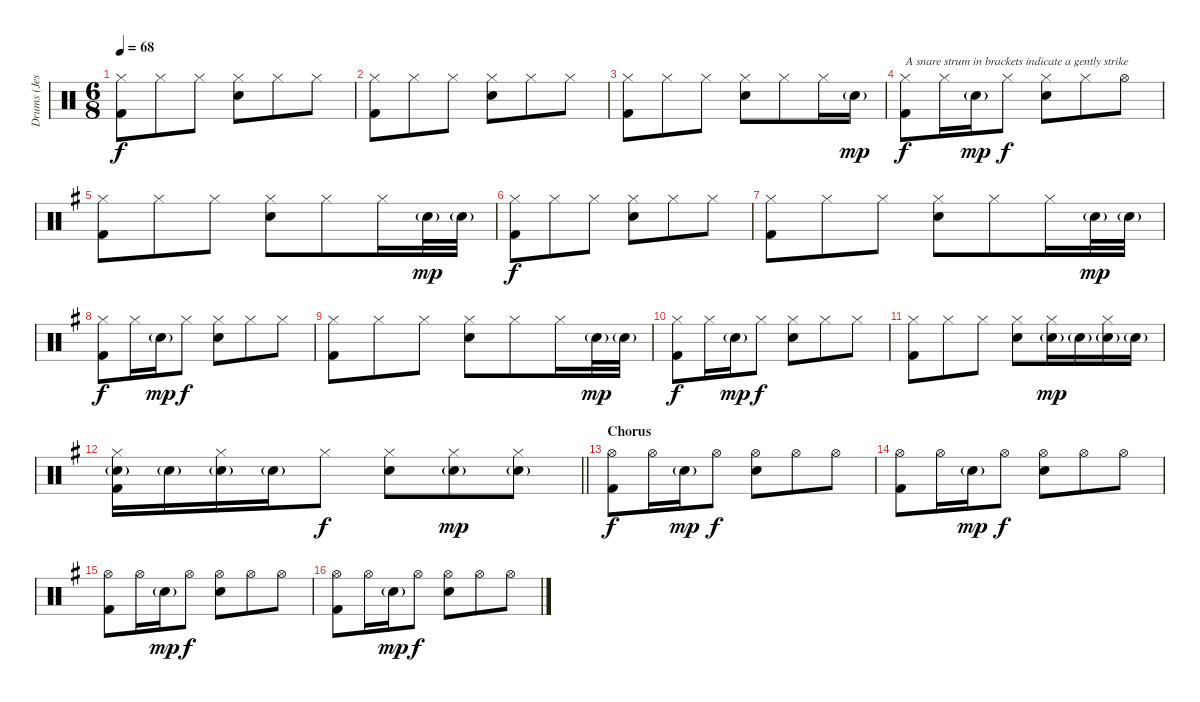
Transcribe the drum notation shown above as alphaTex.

\track ("Drums (Jesper Lind)" "Drums (Jes") {instrument percussion}
\staff {score}
\articulation defaults
\ts (6 8)
\tempo 68
\clef neutral
\ks aminor
("Hi-Hat (closed)" "Kick (hit) 2").8{dy f} "Hi-Hat (closed)".8 "Hi-Hat (closed)".8 ("Hi-Hat (closed)" "Electric Snare (hit)").8 "Hi-Hat (closed)".8 "Hi-Hat (closed)".8 |
("Hi-Hat (closed)" "Kick (hit) 2").8 "Hi-Hat (closed)".8 "Hi-Hat (closed)".8 ("Hi-Hat (closed)" "Electric Snare (hit)").8 "Hi-Hat (closed)".8 "Hi-Hat (closed)".8 |
("Hi-Hat (closed)" "Kick (hit) 2").8 "Hi-Hat (closed)".8 "Hi-Hat (closed)".8 ("Hi-Hat (closed)" "Electric Snare (hit)").8 "Hi-Hat (closed)".8 "Hi-Hat (closed)".16 "Electric Snare (hit)"{g}.16{dy mp} |
("Hi-Hat (closed)" "Kick (hit) 2").8{txt "A snare strum in brackets indicate a gently strike" dy f} "Hi-Hat (closed)".16 "Electric Snare (hit)"{g}.16{dy mp} "Hi-Hat (closed)".8{dy f} ("Hi-Hat (closed)" "Electric Snare (hit)").8 "Hi-Hat (closed)".8 "Hi-Hat (open)".8 |
\ks eminor
("Hi-Hat (closed)" "Kick (hit) 2").8 "Hi-Hat (closed)".8 "Hi-Hat (closed)".8 ("Hi-Hat (closed)" "Electric Snare (hit)").8 "Hi-Hat (closed)".8 "Hi-Hat (closed)".16 "Electric Snare (hit)"{g}.32{dy mp} "Electric Snare (hit)"{g}.32 |
("Hi-Hat (closed)" "Kick (hit) 2").8{dy f} "Hi-Hat (closed)".8 "Hi-Hat (closed)".8 ("Hi-Hat (closed)" "Electric Snare (hit)").8 "Hi-Hat (closed)".8 "Hi-Hat (closed)".8 |
("Hi-Hat (closed)" "Kick (hit) 2").8 "Hi-Hat (closed)".8 "Hi-Hat (closed)".8 ("Hi-Hat (closed)" "Electric Snare (hit)").8 "Hi-Hat (closed)".8 "Hi-Hat (closed)".16 "Electric Snare (hit)"{g}.32{dy mp} "Electric Snare (hit)"{g}.32 |
("Hi-Hat (closed)" "Kick (hit) 2").8{dy f} "Hi-Hat (closed)".16 "Electric Snare (hit)"{g}.16{dy mp} "Hi-Hat (closed)".8{dy f} ("Hi-Hat (closed)" "Electric Snare (hit)").8 "Hi-Hat (closed)".8 "Hi-Hat (closed)".8 |
("Hi-Hat (closed)" "Kick (hit) 2").8 "Hi-Hat (closed)".8 "Hi-Hat (closed)".8 ("Hi-Hat (closed)" "Electric Snare (hit)").8 "Hi-Hat (closed)".8 "Hi-Hat (closed)".16 "Electric Snare (hit)"{g}.32{dy mp} "Electric Snare (hit)"{g}.32 |
("Hi-Hat (closed)" "Kick (hit) 2").8{dy f} "Hi-Hat (closed)".16 "Electric Snare (hit)"{g}.16{dy mp} "Hi-Hat (closed)".8{dy f} ("Hi-Hat (closed)" "Electric Snare (hit)").8 "Hi-Hat (closed)".8 "Hi-Hat (closed)".8 |
("Hi-Hat (closed)" "Kick (hit) 2").8 "Hi-Hat (closed)".8 "Hi-Hat (closed)".8 ("Hi-Hat (closed)" "Electric Snare (hit)").8 ("Hi-Hat (closed)" "Electric Snare (hit)"{g}).16{dy mp} "Electric Snare (hit)"{g}.16 ("Hi-Hat (closed)" "Electric Snare (hit)"{g}).16 "Electric Snare (hit)"{g}.16 |
\barLineRight lightlight
("Hi-Hat (closed)" "Kick (hit) 2" "Electric Snare (hit)"{g}).16 "Electric Snare (hit)"{g}.16 ("Hi-Hat (closed)" "Electric Snare (hit)"{g}).16 "Electric Snare (hit)"{g}.16 "Hi-Hat (closed)".8{dy f} ("Hi-Hat (closed)" "Electric Snare (hit)").8 ("Hi-Hat (closed)" "Electric Snare (hit)"{g}).8{dy mp} ("Hi-Hat (closed)" "Electric Snare (hit)"{g}).8 |
\section ("" "Chorus")
("Hi-Hat (open)" "Kick (hit) 2").8{dy f} "Hi-Hat (open)".16 "Electric Snare (hit)"{g}.16{dy mp} "Hi-Hat (open)".8{dy f} ("Hi-Hat (open)" "Electric Snare (hit)").8 "Hi-Hat (open)".8 "Hi-Hat (open)".8 |
("Hi-Hat (open)" "Kick (hit) 2").8 "Hi-Hat (open)".16 "Electric Snare (hit)"{g}.16{dy mp} "Hi-Hat (open)".8{dy f} ("Hi-Hat (open)" "Electric Snare (hit)").8 "Hi-Hat (open)".8 "Hi-Hat (open)".8 |
("Hi-Hat (open)" "Kick (hit) 2").8 "Hi-Hat (open)".16 "Electric Snare (hit)"{g}.16{dy mp} "Hi-Hat (open)".8{dy f} ("Hi-Hat (open)" "Electric Snare (hit)").8 "Hi-Hat (open)".8 "Hi-Hat (open)".8 |
("Hi-Hat (open)" "Kick (hit) 2").8 "Hi-Hat (open)".16 "Electric Snare (hit)"{g}.16{dy mp} "Hi-Hat (open)".8{dy f} ("Hi-Hat (open)" "Electric Snare (hit)").8 "Hi-Hat (open)".8 "Hi-Hat (open)".8
